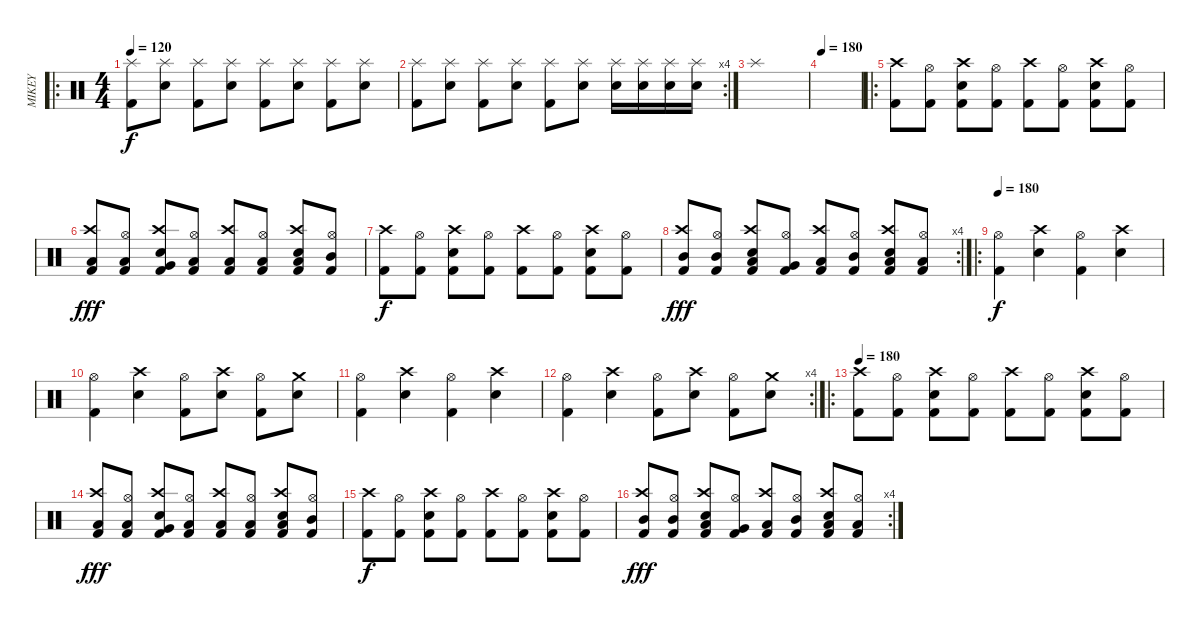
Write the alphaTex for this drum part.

\track ("MIKEY" "MIKEY") {instrument percussion}
\staff {score}
\articulation defaults
\ro
\ts (4 4)
\tempo 120
\clef neutral
\ks c
("Splash (hit)" "Kick (hit) 2").8{dy f} ("Splash (hit)" "Electric Snare (hit)").8 ("Splash (hit)" "Kick (hit) 2").8 ("Splash (hit)" "Electric Snare (hit)").8 ("Splash (hit)" "Kick (hit) 2").8 ("Splash (hit)" "Electric Snare (hit)").8 ("Splash (hit)" "Kick (hit) 2").8 ("Splash (hit)" "Electric Snare (hit)").8 |
\rc 4
("Splash (hit)" "Kick (hit) 2").8 ("Splash (hit)" "Electric Snare (hit)").8 ("Splash (hit)" "Kick (hit) 2").8 ("Splash (hit)" "Electric Snare (hit)").8 ("Splash (hit)" "Kick (hit) 2").8 ("Splash (hit)" "Electric Snare (hit)").8 ("Splash (hit)" "Electric Snare (hit)").16 ("Splash (hit)" "Electric Snare (hit)").16 ("Splash (hit)" "Electric Snare (hit)").16 ("Splash (hit)" "Electric Snare (hit)").16 |
"Splash (hit)".1 |
\tempo 180
|
\ro
("Crash high (hit)" "Kick (hit) 2").8 ("Hi-Hat (open)" "Kick (hit) 2").8 ("Crash high (hit)" "Snare (hit) 2" "Kick (hit) 2").8 ("Hi-Hat (open)" "Kick (hit) 2").8 ("Crash high (hit)" "Kick (hit) 2").8 ("Hi-Hat (open)" "Kick (hit) 2").8 ("Crash high (hit)" "Snare (hit) 2" "Kick (hit) 2").8 ("Hi-Hat (open)" "Kick (hit) 2").8 |
("Low Floor Tom (hit)" "Crash high (hit)" "Kick (hit) 2").8{dy fff} ("Low Floor Tom (hit)" "Hi-Hat (open)" "Kick (hit) 2").8 ("Very Low Tom (hit)" "Crash high (hit)" "Snare (hit) 2" "Kick (hit) 2").8 ("Low Floor Tom (hit)" "Hi-Hat (open)" "Kick (hit) 2").8 ("Low Tom (hit)" "Crash high (hit)" "Kick (hit) 2").8 ("Low Floor Tom (hit)" "Hi-Hat (open)" "Kick (hit) 2").8 ("Low Tom (hit)" "Crash high (hit)" "Snare (hit) 2" "Kick (hit) 2").8 ("Mid Tom (hit)" "Hi-Hat (open)" "Kick (hit) 2").8 |
("Crash high (hit)" "Kick (hit) 2").8{dy f} ("Hi-Hat (open)" "Kick (hit) 2").8 ("Crash high (hit)" "Snare (hit) 2" "Kick (hit) 2").8 ("Hi-Hat (open)" "Kick (hit) 2").8 ("Crash high (hit)" "Kick (hit) 2").8 ("Hi-Hat (open)" "Kick (hit) 2").8 ("Crash high (hit)" "Snare (hit) 2" "Kick (hit) 2").8 ("Hi-Hat (open)" "Kick (hit) 2").8 |
\rc 4
("Mid Tom (hit)" "Crash high (hit)" "Kick (hit) 2").8{dy fff} ("Mid Tom (hit)" "Hi-Hat (open)" "Kick (hit) 2").8 ("Low Tom (hit)" "Crash high (hit)" "Snare (hit) 2" "Kick (hit) 2").8 ("Very Low Tom (hit)" "Hi-Hat (open)" "Kick (hit) 2").8 ("Low Tom (hit)" "Crash high (hit)" "Kick (hit) 2").8 ("Mid Tom (hit)" "Hi-Hat (open)" "Kick (hit) 2").8 ("Low Tom (hit)" "Crash high (hit)" "Snare (hit) 2" "Kick (hit) 2").8 ("Low Floor Tom (hit)" "Hi-Hat (open)" "Kick (hit) 2").8 |
\ro
\tempo 180
("Hi-Hat (open)" "Kick (hit) 2").4{dy f} ("Crash high (hit)" "Snare (hit) 2").4 ("Hi-Hat (open)" "Kick (hit) 2").4 ("Crash high (hit)" "Snare (hit) 2").4 |
("Hi-Hat (open)" "Kick (hit) 2").4 ("Crash high (hit)" "Snare (hit) 2").4 ("Hi-Hat (open)" "Kick (hit) 2").8 ("Crash high (hit)" "Snare (hit) 2").8 ("Hi-Hat (open)" "Kick (hit) 2").8 ("Crash medium (hit)" "Snare (hit) 2").8 |
("Hi-Hat (open)" "Kick (hit) 2").4 ("Crash high (hit)" "Snare (hit) 2").4 ("Hi-Hat (open)" "Kick (hit) 2").4 ("Crash high (hit)" "Snare (hit) 2").4 |
\rc 4
("Hi-Hat (open)" "Kick (hit) 2").4 ("Crash high (hit)" "Snare (hit) 2").4 ("Hi-Hat (open)" "Kick (hit) 2").8 ("Crash high (hit)" "Snare (hit) 2").8 ("Hi-Hat (open)" "Kick (hit) 2").8 ("Crash medium (hit)" "Snare (hit) 2").8 |
\ro
\tempo 180
("Crash high (hit)" "Kick (hit) 2").8 ("Hi-Hat (open)" "Kick (hit) 2").8 ("Crash high (hit)" "Snare (hit) 2" "Kick (hit) 2").8 ("Hi-Hat (open)" "Kick (hit) 2").8 ("Crash high (hit)" "Kick (hit) 2").8 ("Hi-Hat (open)" "Kick (hit) 2").8 ("Crash high (hit)" "Snare (hit) 2" "Kick (hit) 2").8 ("Hi-Hat (open)" "Kick (hit) 2").8 |
("Low Floor Tom (hit)" "Crash high (hit)" "Kick (hit) 2").8{dy fff} ("Low Floor Tom (hit)" "Hi-Hat (open)" "Kick (hit) 2").8 ("Very Low Tom (hit)" "Crash high (hit)" "Snare (hit) 2" "Kick (hit) 2").8 ("Low Floor Tom (hit)" "Hi-Hat (open)" "Kick (hit) 2").8 ("Low Tom (hit)" "Crash high (hit)" "Kick (hit) 2").8 ("Low Floor Tom (hit)" "Hi-Hat (open)" "Kick (hit) 2").8 ("Low Tom (hit)" "Crash high (hit)" "Snare (hit) 2" "Kick (hit) 2").8 ("Mid Tom (hit)" "Hi-Hat (open)" "Kick (hit) 2").8 |
("Crash high (hit)" "Kick (hit) 2").8{dy f} ("Hi-Hat (open)" "Kick (hit) 2").8 ("Crash high (hit)" "Snare (hit) 2" "Kick (hit) 2").8 ("Hi-Hat (open)" "Kick (hit) 2").8 ("Crash high (hit)" "Kick (hit) 2").8 ("Hi-Hat (open)" "Kick (hit) 2").8 ("Crash high (hit)" "Snare (hit) 2" "Kick (hit) 2").8 ("Hi-Hat (open)" "Kick (hit) 2").8 |
\rc 4
("Mid Tom (hit)" "Crash high (hit)" "Kick (hit) 2").8{dy fff} ("Mid Tom (hit)" "Hi-Hat (open)" "Kick (hit) 2").8 ("Low Tom (hit)" "Crash high (hit)" "Snare (hit) 2" "Kick (hit) 2").8 ("Very Low Tom (hit)" "Hi-Hat (open)" "Kick (hit) 2").8 ("Low Tom (hit)" "Crash high (hit)" "Kick (hit) 2").8 ("Mid Tom (hit)" "Hi-Hat (open)" "Kick (hit) 2").8 ("Low Tom (hit)" "Crash high (hit)" "Snare (hit) 2" "Kick (hit) 2").8 ("Low Floor Tom (hit)" "Hi-Hat (open)" "Kick (hit) 2").8
